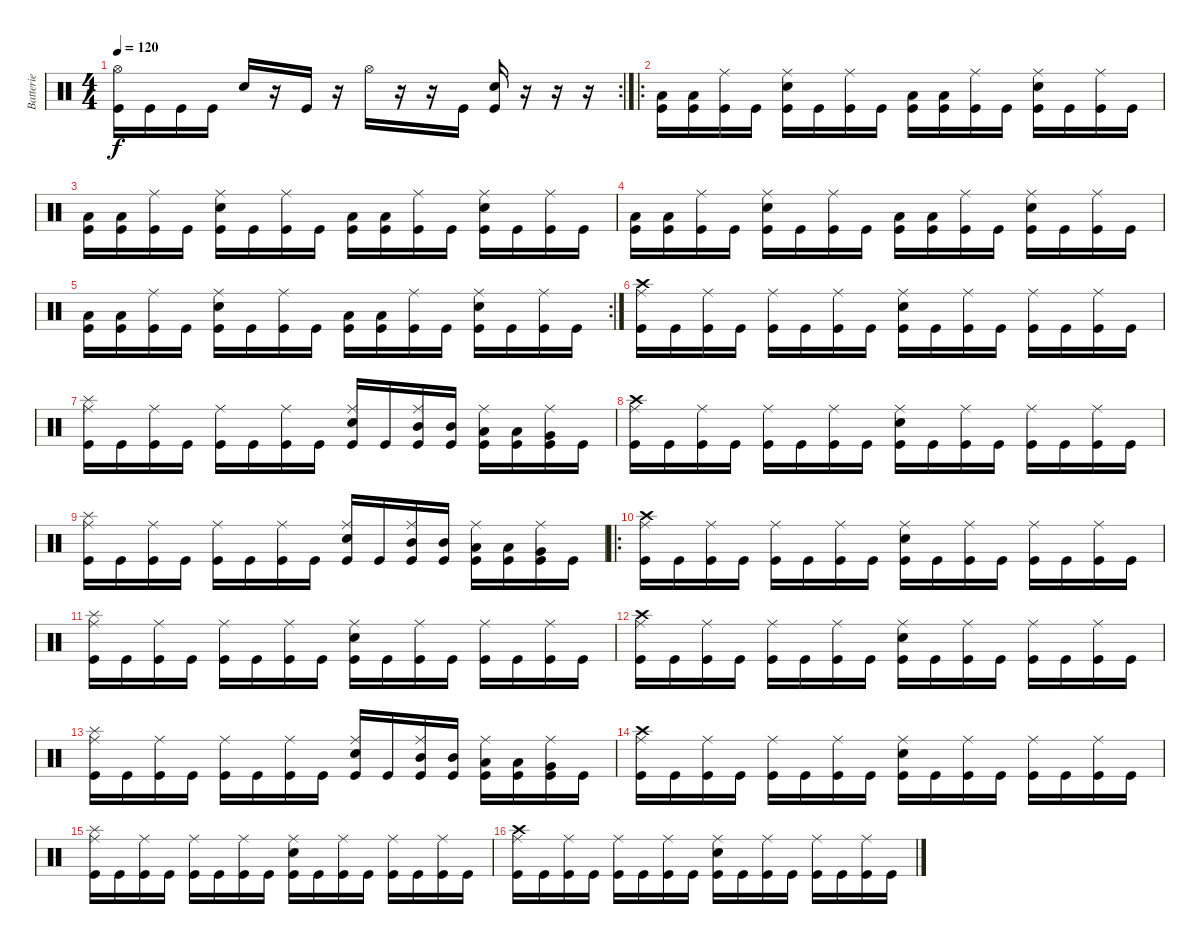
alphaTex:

\track ("Batterie" "Batterie") {instrument percussion}
\staff {score}
\articulation defaults
\rc 2
\ts (4 4)
\tempo 120
\clef neutral
\ks c
("Hi-Hat (open)" "Kick (hit)").16{dy f} "Kick (hit)".16 "Kick (hit)".16 "Kick (hit)".16 "Snare (hit) 2".16 r.16 "Kick (hit)".16 r.16 "Hi-Hat (open)".16 r.16 r.16 "Kick (hit)".16 ("Snare (hit) 2" "Kick (hit)").16 r.16 r.16 r.16 |
\ro
("Low Tom (hit)" "Kick (hit)").16 ("Low Tom (hit)" "Kick (hit)").16 ("Ride (middle)" "Kick (hit)").16 "Kick (hit)".16 ("Ride (middle)" "Electric Snare (hit)" "Kick (hit)").16 "Kick (hit)".16 ("Ride (middle)" "Kick (hit)").16 "Kick (hit)".16 ("Low Tom (hit)" "Kick (hit)").16 ("Low Tom (hit)" "Kick (hit)").16 ("Ride (middle)" "Kick (hit)").16 "Kick (hit)".16 ("Ride (middle)" "Electric Snare (hit)" "Kick (hit)").16 "Kick (hit)".16 ("Ride (middle)" "Kick (hit)").16 "Kick (hit)".16 |
("Low Tom (hit)" "Kick (hit)").16 ("Low Tom (hit)" "Kick (hit)").16 ("Ride (middle)" "Kick (hit)").16 "Kick (hit)".16 ("Ride (middle)" "Electric Snare (hit)" "Kick (hit)").16 "Kick (hit)".16 ("Ride (middle)" "Kick (hit)").16 "Kick (hit)".16 ("Low Tom (hit)" "Kick (hit)").16 ("Low Tom (hit)" "Kick (hit)").16 ("Ride (middle)" "Kick (hit)").16 "Kick (hit)".16 ("Ride (middle)" "Electric Snare (hit)" "Kick (hit)").16 "Kick (hit)".16 ("Ride (middle)" "Kick (hit)").16 "Kick (hit)".16 |
("Low Tom (hit)" "Kick (hit)").16 ("Low Tom (hit)" "Kick (hit)").16 ("Ride (middle)" "Kick (hit)").16 "Kick (hit)".16 ("Ride (middle)" "Electric Snare (hit)" "Kick (hit)").16 "Kick (hit)".16 ("Ride (middle)" "Kick (hit)").16 "Kick (hit)".16 ("Low Tom (hit)" "Kick (hit)").16 ("Low Tom (hit)" "Kick (hit)").16 ("Ride (middle)" "Kick (hit)").16 "Kick (hit)".16 ("Ride (middle)" "Electric Snare (hit)" "Kick (hit)").16 "Kick (hit)".16 ("Ride (middle)" "Kick (hit)").16 "Kick (hit)".16 |
\rc 2
("Low Tom (hit)" "Kick (hit)").16 ("Low Tom (hit)" "Kick (hit)").16 ("Ride (middle)" "Kick (hit)").16 "Kick (hit)".16 ("Ride (middle)" "Electric Snare (hit)" "Kick (hit)").16 "Kick (hit)".16 ("Ride (middle)" "Kick (hit)").16 "Kick (hit)".16 ("Low Tom (hit)" "Kick (hit)").16 ("Low Tom (hit)" "Kick (hit)").16 ("Ride (middle)" "Kick (hit)").16 "Kick (hit)".16 ("Ride (middle)" "Electric Snare (hit)" "Kick (hit)").16 "Kick (hit)".16 ("Ride (middle)" "Kick (hit)").16 "Kick (hit)".16 |
("Ride (middle)" "Crash high (hit)" "Kick (hit)").16 "Kick (hit)".16 ("Ride (middle)" "Kick (hit)").16 "Kick (hit)".16 ("Ride (middle)" "Kick (hit)").16 "Kick (hit)".16 ("Ride (middle)" "Kick (hit)").16 "Kick (hit)".16 ("Ride (middle)" "Electric Snare (hit)" "Kick (hit)").16 "Kick (hit)".16 ("Ride (middle)" "Kick (hit)").16 "Kick (hit)".16 ("Ride (middle)" "Kick (hit)").16 "Kick (hit)".16 ("Ride (middle)" "Kick (hit)").16 "Kick (hit)".16 |
("Ride (middle)" "Splash (hit)" "Kick (hit)").16 "Kick (hit)".16 ("Ride (middle)" "Kick (hit)").16 "Kick (hit)".16 ("Ride (middle)" "Kick (hit)").16 "Kick (hit)".16 ("Ride (middle)" "Kick (hit)").16 "Kick (hit)".16 ("Ride (middle)" "Electric Snare (hit)" "Kick (hit)").16 "Kick (hit)".16 ("Ride (middle)" "Mid Tom (hit)" "Kick (hit)").16 ("Mid Tom (hit)" "Kick (hit)").16 ("Ride (middle)" "Low Tom (hit)" "Kick (hit)").16 ("Low Tom (hit)" "Kick (hit)").16 ("Ride (middle)" "Very Low Tom (hit)" "Kick (hit)").16 "Kick (hit)".16 |
("Ride (middle)" "Crash high (hit)" "Kick (hit)").16 "Kick (hit)".16 ("Ride (middle)" "Kick (hit)").16 "Kick (hit)".16 ("Ride (middle)" "Kick (hit)").16 "Kick (hit)".16 ("Ride (middle)" "Kick (hit)").16 "Kick (hit)".16 ("Ride (middle)" "Electric Snare (hit)" "Kick (hit)").16 "Kick (hit)".16 ("Ride (middle)" "Kick (hit)").16 "Kick (hit)".16 ("Ride (middle)" "Kick (hit)").16 "Kick (hit)".16 ("Ride (middle)" "Kick (hit)").16 "Kick (hit)".16 |
("Ride (middle)" "Splash (hit)" "Kick (hit)").16 "Kick (hit)".16 ("Ride (middle)" "Kick (hit)").16 "Kick (hit)".16 ("Ride (middle)" "Kick (hit)").16 "Kick (hit)".16 ("Ride (middle)" "Kick (hit)").16 "Kick (hit)".16 ("Ride (middle)" "Electric Snare (hit)" "Kick (hit)").16 "Kick (hit)".16 ("Ride (middle)" "Mid Tom (hit)" "Kick (hit)").16 ("Mid Tom (hit)" "Kick (hit)").16 ("Ride (middle)" "Low Tom (hit)" "Kick (hit)").16 ("Low Tom (hit)" "Kick (hit)").16 ("Ride (middle)" "Very Low Tom (hit)" "Kick (hit)").16 "Kick (hit)".16 |
\ro
("Ride (middle)" "Crash high (hit)" "Kick (hit)").16 "Kick (hit)".16 ("Ride (middle)" "Kick (hit)").16 "Kick (hit)".16 ("Ride (middle)" "Kick (hit)").16 "Kick (hit)".16 ("Ride (middle)" "Kick (hit)").16 "Kick (hit)".16 ("Ride (middle)" "Electric Snare (hit)" "Kick (hit)").16 "Kick (hit)".16 ("Ride (middle)" "Kick (hit)").16 "Kick (hit)".16 ("Ride (middle)" "Kick (hit)").16 "Kick (hit)".16 ("Ride (middle)" "Kick (hit)").16 "Kick (hit)".16 |
("Ride (middle)" "Splash (hit)" "Kick (hit)").16 "Kick (hit)".16 ("Ride (middle)" "Kick (hit)").16 "Kick (hit)".16 ("Ride (middle)" "Kick (hit)").16 "Kick (hit)".16 ("Ride (middle)" "Kick (hit)").16 "Kick (hit)".16 ("Ride (middle)" "Electric Snare (hit)" "Kick (hit)").16 "Kick (hit)".16 ("Ride (middle)" "Kick (hit)").16 "Kick (hit)".16 ("Ride (middle)" "Kick (hit)").16 "Kick (hit)".16 ("Ride (middle)" "Kick (hit)").16 "Kick (hit)".16 |
("Ride (middle)" "Crash high (hit)" "Kick (hit)").16 "Kick (hit)".16 ("Ride (middle)" "Kick (hit)").16 "Kick (hit)".16 ("Ride (middle)" "Kick (hit)").16 "Kick (hit)".16 ("Ride (middle)" "Kick (hit)").16 "Kick (hit)".16 ("Ride (middle)" "Electric Snare (hit)" "Kick (hit)").16 "Kick (hit)".16 ("Ride (middle)" "Kick (hit)").16 "Kick (hit)".16 ("Ride (middle)" "Kick (hit)").16 "Kick (hit)".16 ("Ride (middle)" "Kick (hit)").16 "Kick (hit)".16 |
("Ride (middle)" "Splash (hit)" "Kick (hit)").16 "Kick (hit)".16 ("Ride (middle)" "Kick (hit)").16 "Kick (hit)".16 ("Ride (middle)" "Kick (hit)").16 "Kick (hit)".16 ("Ride (middle)" "Kick (hit)").16 "Kick (hit)".16 ("Ride (middle)" "Electric Snare (hit)" "Kick (hit)").16 "Kick (hit)".16 ("Ride (middle)" "Mid Tom (hit)" "Kick (hit)").16 ("Mid Tom (hit)" "Kick (hit)").16 ("Ride (middle)" "Low Tom (hit)" "Kick (hit)").16 ("Low Tom (hit)" "Kick (hit)").16 ("Ride (middle)" "Very Low Tom (hit)" "Kick (hit)").16 "Kick (hit)".16 |
("Ride (middle)" "Crash high (hit)" "Kick (hit)").16 "Kick (hit)".16 ("Ride (middle)" "Kick (hit)").16 "Kick (hit)".16 ("Ride (middle)" "Kick (hit)").16 "Kick (hit)".16 ("Ride (middle)" "Kick (hit)").16 "Kick (hit)".16 ("Ride (middle)" "Electric Snare (hit)" "Kick (hit)").16 "Kick (hit)".16 ("Ride (middle)" "Kick (hit)").16 "Kick (hit)".16 ("Ride (middle)" "Kick (hit)").16 "Kick (hit)".16 ("Ride (middle)" "Kick (hit)").16 "Kick (hit)".16 |
("Ride (middle)" "Splash (hit)" "Kick (hit)").16 "Kick (hit)".16 ("Ride (middle)" "Kick (hit)").16 "Kick (hit)".16 ("Ride (middle)" "Kick (hit)").16 "Kick (hit)".16 ("Ride (middle)" "Kick (hit)").16 "Kick (hit)".16 ("Ride (middle)" "Electric Snare (hit)" "Kick (hit)").16 "Kick (hit)".16 ("Ride (middle)" "Kick (hit)").16 "Kick (hit)".16 ("Ride (middle)" "Kick (hit)").16 "Kick (hit)".16 ("Ride (middle)" "Kick (hit)").16 "Kick (hit)".16 |
("Ride (middle)" "Crash high (hit)" "Kick (hit)").16 "Kick (hit)".16 ("Ride (middle)" "Kick (hit)").16 "Kick (hit)".16 ("Ride (middle)" "Kick (hit)").16 "Kick (hit)".16 ("Ride (middle)" "Kick (hit)").16 "Kick (hit)".16 ("Ride (middle)" "Electric Snare (hit)" "Kick (hit)").16 "Kick (hit)".16 ("Ride (middle)" "Kick (hit)").16 "Kick (hit)".16 ("Ride (middle)" "Kick (hit)").16 "Kick (hit)".16 ("Ride (middle)" "Kick (hit)").16 "Kick (hit)".16
